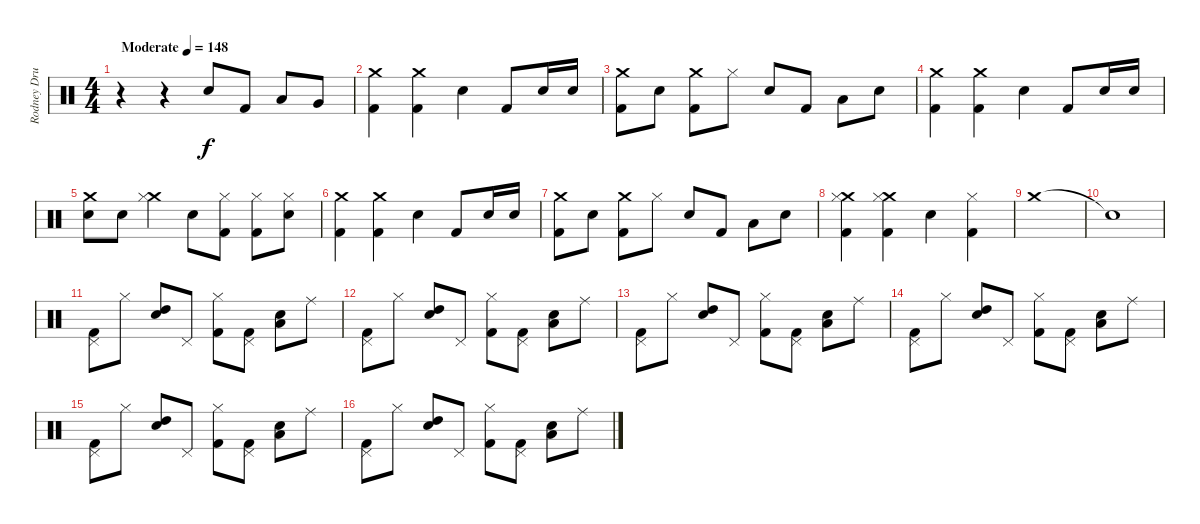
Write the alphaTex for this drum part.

\track ("Rodney Drums" "Rodney Dru") {instrument percussion}
\staff {score}
\articulation defaults
\ts (4 4)
\tempo (148 "Moderate")
\clef neutral
\ks c
r.4{dy f} r.4 "Electric Snare (hit)".8 "Kick (hit) 2".8 "Low Tom (hit)".8 "Very Low Tom (hit)".8 |
("Crash medium (hit)" "Kick (hit) 2").4 ("Crash medium (hit)" "Kick (hit) 2").4 "Electric Snare (hit)".4 "Kick (hit) 2".8 "Electric Snare (hit)".16 "Electric Snare (hit)".16 |
("Crash medium (hit)" "Kick (hit) 2").8 "Electric Snare (hit)".8 ("Crash medium (hit)" "Kick (hit) 2").8 "Hi-Hat (closed)".8 "Electric Snare (hit)".8 "Kick (hit) 2".8 "Low Tom (hit)".8 "Electric Snare (hit)".8 |
("Crash medium (hit)" "Kick (hit) 2").4 ("Crash medium (hit)" "Kick (hit) 2").4 "Electric Snare (hit)".4 "Kick (hit) 2".8 "Electric Snare (hit)".16 "Electric Snare (hit)".16 |
("Crash medium (hit)" "Electric Snare (hit)").8 "Electric Snare (hit)".8 ("Crash medium (hit)" "Hi-Hat (closed)").4 "Electric Snare (hit)".8 ("Hi-Hat (closed)" "Kick (hit) 2").8 ("Hi-Hat (closed)" "Kick (hit) 2").8 ("Hi-Hat (closed)" "Electric Snare (hit)").8 |
("Crash medium (hit)" "Kick (hit) 2").4 ("Crash medium (hit)" "Kick (hit) 2").4 "Electric Snare (hit)".4 "Kick (hit) 2".8 "Electric Snare (hit)".16 "Electric Snare (hit)".16 |
("Crash medium (hit)" "Kick (hit) 2").8 "Electric Snare (hit)".8 ("Crash medium (hit)" "Kick (hit) 2").8 "Hi-Hat (closed)".8 "Electric Snare (hit)".8 "Kick (hit) 2".8 "Low Tom (hit)".8 "Electric Snare (hit)".8 |
("Crash medium (hit)" "Hi-Hat (closed)" "Kick (hit) 2").4 ("Crash medium (hit)" "Hi-Hat (closed)" "Kick (hit) 2").4 "Electric Snare (hit)".4 ("Hi-Hat (closed)" "Kick (hit) 2").4 |
"Crash medium (hit)".1 |
"Snare (hit)"{t}.1 |
("Pedal Hi-Hat (hit)" "Kick (hit) 2").8 "Hi-Hat (closed)".8 ("High Tom (hit)" "Electric Snare (hit)").8 "Pedal Hi-Hat (hit)".8 ("Hi-Hat (closed)" "Kick (hit) 2").8 ("Pedal Hi-Hat (hit)" "Kick (hit) 2").8 ("Low Tom (hit)" "Electric Snare (hit)").8 "Ride (middle)".8 |
("Pedal Hi-Hat (hit)" "Kick (hit) 2").8 "Hi-Hat (closed)".8 ("High Tom (hit)" "Electric Snare (hit)").8 "Pedal Hi-Hat (hit)".8 ("Hi-Hat (closed)" "Kick (hit) 2").8 ("Pedal Hi-Hat (hit)" "Kick (hit) 2").8 ("Low Tom (hit)" "Electric Snare (hit)").8 "Ride (middle)".8 |
("Pedal Hi-Hat (hit)" "Kick (hit) 2").8 "Hi-Hat (closed)".8 ("High Tom (hit)" "Electric Snare (hit)").8 "Pedal Hi-Hat (hit)".8 ("Hi-Hat (closed)" "Kick (hit) 2").8 ("Pedal Hi-Hat (hit)" "Kick (hit) 2").8 ("Low Tom (hit)" "Electric Snare (hit)").8 "Ride (middle)".8 |
("Pedal Hi-Hat (hit)" "Kick (hit) 2").8 "Hi-Hat (closed)".8 ("High Tom (hit)" "Electric Snare (hit)").8 "Pedal Hi-Hat (hit)".8 ("Hi-Hat (closed)" "Kick (hit) 2").8 ("Pedal Hi-Hat (hit)" "Kick (hit) 2").8 ("Low Tom (hit)" "Electric Snare (hit)").8 "Ride (middle)".8 |
("Pedal Hi-Hat (hit)" "Kick (hit) 2").8 "Hi-Hat (closed)".8 ("High Tom (hit)" "Electric Snare (hit)").8 "Pedal Hi-Hat (hit)".8 ("Hi-Hat (closed)" "Kick (hit) 2").8 ("Pedal Hi-Hat (hit)" "Kick (hit) 2").8 ("Low Tom (hit)" "Electric Snare (hit)").8 "Ride (middle)".8 |
("Pedal Hi-Hat (hit)" "Kick (hit) 2").8 "Hi-Hat (closed)".8 ("High Tom (hit)" "Electric Snare (hit)").8 "Pedal Hi-Hat (hit)".8 ("Hi-Hat (closed)" "Kick (hit) 2").8 ("Pedal Hi-Hat (hit)" "Kick (hit) 2").8 ("Low Tom (hit)" "Electric Snare (hit)").8 "Ride (middle)".8
